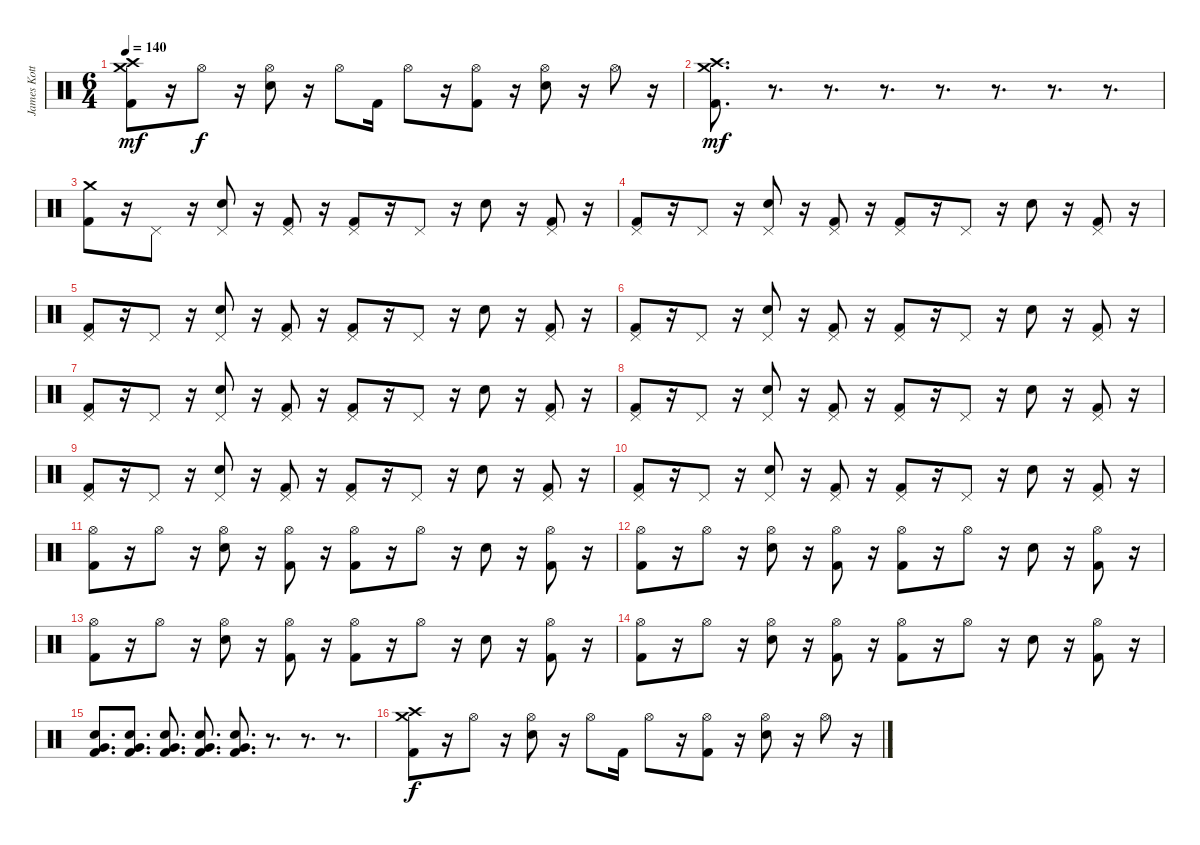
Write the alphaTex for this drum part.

\track ("James Kottak" "James Kott") {instrument percussion}
\staff {score}
\articulation defaults
\ts (6 4)
\tempo 140
\clef neutral
\ks c
("Crash medium (hit)" "Crash high (hit)" "Kick (hit) 2").8{dy mf} r.16 "Hi-Hat (open)".8{dy f} r.16 ("Hi-Hat (open)" "Electric Snare (hit)").8 r.16 "Hi-Hat (open)".8 "Kick (hit) 2".16 "Hi-Hat (open)".8 r.16 ("Hi-Hat (open)" "Kick (hit) 2").8 r.16 ("Hi-Hat (open)" "Electric Snare (hit)").8 r.16 "Hi-Hat (open)".8 r.16 |
("Crash medium (hit)" "Crash high (hit)" "Kick (hit) 2").8{d dy mf} r.8{d} r.8{d} r.8{d} r.8{d} r.8{d} r.8{d} r.8{d} |
("Crash medium (hit)" "Kick (hit) 2").8 r.16 "Pedal Hi-Hat (hit)".8 r.16 ("Pedal Hi-Hat (hit)" "Electric Snare (hit)").8 r.16 ("Pedal Hi-Hat (hit)" "Kick (hit) 2").8 r.16 ("Pedal Hi-Hat (hit)" "Kick (hit) 2").8 r.16 "Pedal Hi-Hat (hit)".8 r.16 "Electric Snare (hit)".8 r.16 ("Pedal Hi-Hat (hit)" "Kick (hit) 2").8 r.16 |
("Pedal Hi-Hat (hit)" "Kick (hit) 2").8 r.16 "Pedal Hi-Hat (hit)".8 r.16 ("Pedal Hi-Hat (hit)" "Electric Snare (hit)").8 r.16 ("Pedal Hi-Hat (hit)" "Kick (hit) 2").8 r.16 ("Pedal Hi-Hat (hit)" "Kick (hit) 2").8 r.16 "Pedal Hi-Hat (hit)".8 r.16 "Electric Snare (hit)".8 r.16 ("Pedal Hi-Hat (hit)" "Kick (hit) 2").8 r.16 |
("Pedal Hi-Hat (hit)" "Kick (hit) 2").8 r.16 "Pedal Hi-Hat (hit)".8 r.16 ("Pedal Hi-Hat (hit)" "Electric Snare (hit)").8 r.16 ("Pedal Hi-Hat (hit)" "Kick (hit) 2").8 r.16 ("Pedal Hi-Hat (hit)" "Kick (hit) 2").8 r.16 "Pedal Hi-Hat (hit)".8 r.16 "Electric Snare (hit)".8 r.16 ("Pedal Hi-Hat (hit)" "Kick (hit) 2").8 r.16 |
("Pedal Hi-Hat (hit)" "Kick (hit) 2").8 r.16 "Pedal Hi-Hat (hit)".8 r.16 ("Pedal Hi-Hat (hit)" "Electric Snare (hit)").8 r.16 ("Pedal Hi-Hat (hit)" "Kick (hit) 2").8 r.16 ("Pedal Hi-Hat (hit)" "Kick (hit) 2").8 r.16 "Pedal Hi-Hat (hit)".8 r.16 "Electric Snare (hit)".8 r.16 ("Pedal Hi-Hat (hit)" "Kick (hit) 2").8 r.16 |
("Pedal Hi-Hat (hit)" "Kick (hit) 2").8 r.16 "Pedal Hi-Hat (hit)".8 r.16 ("Pedal Hi-Hat (hit)" "Electric Snare (hit)").8 r.16 ("Pedal Hi-Hat (hit)" "Kick (hit) 2").8 r.16 ("Pedal Hi-Hat (hit)" "Kick (hit) 2").8 r.16 "Pedal Hi-Hat (hit)".8 r.16 "Electric Snare (hit)".8 r.16 ("Pedal Hi-Hat (hit)" "Kick (hit) 2").8 r.16 |
("Pedal Hi-Hat (hit)" "Kick (hit) 2").8 r.16 "Pedal Hi-Hat (hit)".8 r.16 ("Pedal Hi-Hat (hit)" "Electric Snare (hit)").8 r.16 ("Pedal Hi-Hat (hit)" "Kick (hit) 2").8 r.16 ("Pedal Hi-Hat (hit)" "Kick (hit) 2").8 r.16 "Pedal Hi-Hat (hit)".8 r.16 "Electric Snare (hit)".8 r.16 ("Pedal Hi-Hat (hit)" "Kick (hit) 2").8 r.16 |
("Pedal Hi-Hat (hit)" "Kick (hit) 2").8 r.16 "Pedal Hi-Hat (hit)".8 r.16 ("Pedal Hi-Hat (hit)" "Electric Snare (hit)").8 r.16 ("Pedal Hi-Hat (hit)" "Kick (hit) 2").8 r.16 ("Pedal Hi-Hat (hit)" "Kick (hit) 2").8 r.16 "Pedal Hi-Hat (hit)".8 r.16 "Electric Snare (hit)".8 r.16 ("Pedal Hi-Hat (hit)" "Kick (hit) 2").8 r.16 |
("Pedal Hi-Hat (hit)" "Kick (hit) 2").8 r.16 "Pedal Hi-Hat (hit)".8 r.16 ("Pedal Hi-Hat (hit)" "Electric Snare (hit)").8 r.16 ("Pedal Hi-Hat (hit)" "Kick (hit) 2").8 r.16 ("Pedal Hi-Hat (hit)" "Kick (hit) 2").8 r.16 "Pedal Hi-Hat (hit)".8 r.16 "Electric Snare (hit)".8 r.16 ("Pedal Hi-Hat (hit)" "Kick (hit) 2").8 r.16 |
("Hi-Hat (open)" "Kick (hit) 2").8 r.16 "Hi-Hat (open)".8 r.16 ("Hi-Hat (open)" "Electric Snare (hit)").8 r.16 ("Hi-Hat (open)" "Kick (hit) 2").8 r.16 ("Hi-Hat (open)" "Kick (hit) 2").8 r.16 "Hi-Hat (open)".8 r.16 "Electric Snare (hit)".8 r.16 ("Hi-Hat (open)" "Kick (hit) 2").8 r.16 |
("Hi-Hat (open)" "Kick (hit) 2").8 r.16 "Hi-Hat (open)".8 r.16 ("Hi-Hat (open)" "Electric Snare (hit)").8 r.16 ("Hi-Hat (open)" "Kick (hit) 2").8 r.16 ("Hi-Hat (open)" "Kick (hit) 2").8 r.16 "Hi-Hat (open)".8 r.16 "Electric Snare (hit)".8 r.16 ("Hi-Hat (open)" "Kick (hit) 2").8 r.16 |
("Hi-Hat (open)" "Kick (hit) 2").8 r.16 "Hi-Hat (open)".8 r.16 ("Hi-Hat (open)" "Electric Snare (hit)").8 r.16 ("Hi-Hat (open)" "Kick (hit) 2").8 r.16 ("Hi-Hat (open)" "Kick (hit) 2").8 r.16 "Hi-Hat (open)".8 r.16 "Electric Snare (hit)".8 r.16 ("Hi-Hat (open)" "Kick (hit) 2").8 r.16 |
("Hi-Hat (open)" "Kick (hit) 2").8 r.16 "Hi-Hat (open)".8 r.16 ("Hi-Hat (open)" "Electric Snare (hit)").8 r.16 ("Hi-Hat (open)" "Kick (hit) 2").8 r.16 ("Hi-Hat (open)" "Kick (hit) 2").8 r.16 "Hi-Hat (open)".8 r.16 "Electric Snare (hit)".8 r.16 ("Hi-Hat (open)" "Kick (hit) 2").8 r.16 |
("Electric Snare (hit)" "Very Low Tom (hit)" "Kick (hit) 2").8{d} ("Electric Snare (hit)" "Very Low Tom (hit)" "Kick (hit) 2").8{d} ("Electric Snare (hit)" "Very Low Tom (hit)" "Kick (hit) 2").8{d} ("Electric Snare (hit)" "Very Low Tom (hit)" "Kick (hit) 2").8{d} ("Electric Snare (hit)" "Very Low Tom (hit)" "Kick (hit) 2").8{d} r.8{d} r.8{d} r.8{d} |
("Crash high (hit)" "Crash medium (hit)" "Kick (hit) 2").8{dy f} r.16 "Hi-Hat (open)".8 r.16 ("Hi-Hat (open)" "Electric Snare (hit)").8 r.16 "Hi-Hat (open)".8 "Kick (hit) 2".16 "Hi-Hat (open)".8 r.16 ("Hi-Hat (open)" "Kick (hit) 2").8 r.16 ("Hi-Hat (open)" "Electric Snare (hit)").8 r.16 "Hi-Hat (open)".8 r.16
